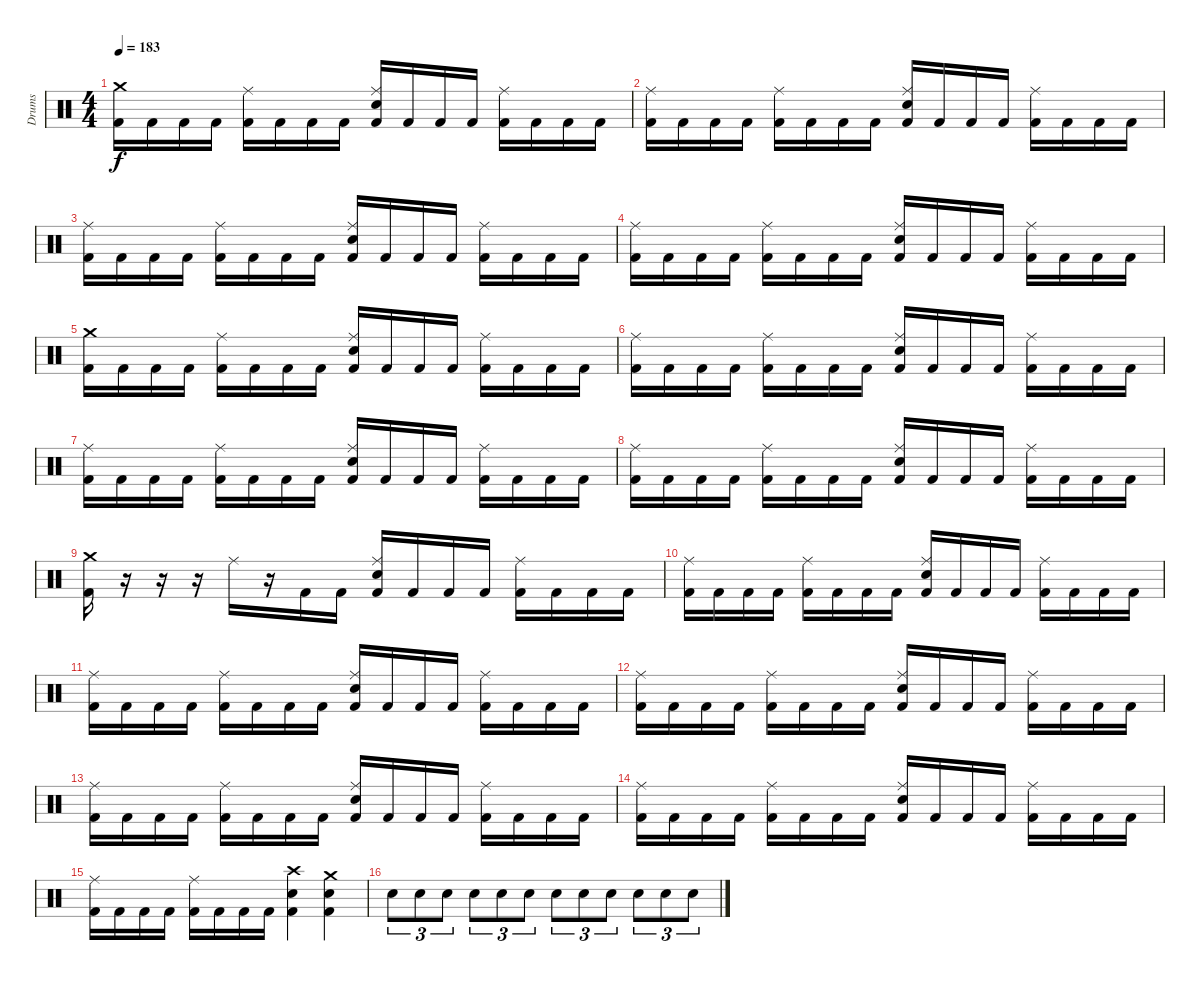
\track ("Drums" "Drums") {instrument percussion}
\staff {score}
\articulation defaults
\ts (4 4)
\section ("" "")
\tempo 183
\clef neutral
\ks c
("Crash medium (hit)" "Kick (hit) 2").16{dy f} "Kick (hit) 2".16 "Kick (hit) 2".16 "Kick (hit) 2".16 ("Ride (middle)" "Kick (hit) 2").16 "Kick (hit) 2".16 "Kick (hit) 2".16 "Kick (hit) 2".16 ("Ride (middle)" "Electric Snare (hit)" "Kick (hit) 2").16 "Kick (hit) 2".16 "Kick (hit) 2".16 "Kick (hit) 2".16 ("Ride (middle)" "Kick (hit) 2").16 "Kick (hit) 2".16 "Kick (hit) 2".16 "Kick (hit) 2".16 |
("Ride (middle)" "Kick (hit) 2").16 "Kick (hit) 2".16 "Kick (hit) 2".16 "Kick (hit) 2".16 ("Ride (middle)" "Kick (hit) 2").16 "Kick (hit) 2".16 "Kick (hit) 2".16 "Kick (hit) 2".16 ("Ride (middle)" "Electric Snare (hit)" "Kick (hit) 2").16 "Kick (hit) 2".16 "Kick (hit) 2".16 "Kick (hit) 2".16 ("Ride (middle)" "Kick (hit) 2").16 "Kick (hit) 2".16 "Kick (hit) 2".16 "Kick (hit) 2".16 |
("Ride (middle)" "Kick (hit) 2").16 "Kick (hit) 2".16 "Kick (hit) 2".16 "Kick (hit) 2".16 ("Ride (middle)" "Kick (hit) 2").16 "Kick (hit) 2".16 "Kick (hit) 2".16 "Kick (hit) 2".16 ("Ride (middle)" "Electric Snare (hit)" "Kick (hit) 2").16 "Kick (hit) 2".16 "Kick (hit) 2".16 "Kick (hit) 2".16 ("Ride (middle)" "Kick (hit) 2").16 "Kick (hit) 2".16 "Kick (hit) 2".16 "Kick (hit) 2".16 |
("Ride (middle)" "Kick (hit) 2").16 "Kick (hit) 2".16 "Kick (hit) 2".16 "Kick (hit) 2".16 ("Ride (middle)" "Kick (hit) 2").16 "Kick (hit) 2".16 "Kick (hit) 2".16 "Kick (hit) 2".16 ("Ride (middle)" "Electric Snare (hit)" "Kick (hit) 2").16 "Kick (hit) 2".16 "Kick (hit) 2".16 "Kick (hit) 2".16 ("Ride (middle)" "Kick (hit) 2").16 "Kick (hit) 2".16 "Kick (hit) 2".16 "Kick (hit) 2".16 |
("Crash medium (hit)" "Kick (hit) 2").16 "Kick (hit) 2".16 "Kick (hit) 2".16 "Kick (hit) 2".16 ("Ride (middle)" "Kick (hit) 2").16 "Kick (hit) 2".16 "Kick (hit) 2".16 "Kick (hit) 2".16 ("Ride (middle)" "Electric Snare (hit)" "Kick (hit) 2").16 "Kick (hit) 2".16 "Kick (hit) 2".16 "Kick (hit) 2".16 ("Ride (middle)" "Kick (hit) 2").16 "Kick (hit) 2".16 "Kick (hit) 2".16 "Kick (hit) 2".16 |
("Ride (middle)" "Kick (hit) 2").16 "Kick (hit) 2".16 "Kick (hit) 2".16 "Kick (hit) 2".16 ("Ride (middle)" "Kick (hit) 2").16 "Kick (hit) 2".16 "Kick (hit) 2".16 "Kick (hit) 2".16 ("Ride (middle)" "Electric Snare (hit)" "Kick (hit) 2").16 "Kick (hit) 2".16 "Kick (hit) 2".16 "Kick (hit) 2".16 ("Ride (middle)" "Kick (hit) 2").16 "Kick (hit) 2".16 "Kick (hit) 2".16 "Kick (hit) 2".16 |
("Ride (middle)" "Kick (hit) 2").16 "Kick (hit) 2".16 "Kick (hit) 2".16 "Kick (hit) 2".16 ("Ride (middle)" "Kick (hit) 2").16 "Kick (hit) 2".16 "Kick (hit) 2".16 "Kick (hit) 2".16 ("Ride (middle)" "Electric Snare (hit)" "Kick (hit) 2").16 "Kick (hit) 2".16 "Kick (hit) 2".16 "Kick (hit) 2".16 ("Ride (middle)" "Kick (hit) 2").16 "Kick (hit) 2".16 "Kick (hit) 2".16 "Kick (hit) 2".16 |
("Ride (middle)" "Kick (hit) 2").16 "Kick (hit) 2".16 "Kick (hit) 2".16 "Kick (hit) 2".16 ("Ride (middle)" "Kick (hit) 2").16 "Kick (hit) 2".16 "Kick (hit) 2".16 "Kick (hit) 2".16 ("Ride (middle)" "Electric Snare (hit)" "Kick (hit) 2").16 "Kick (hit) 2".16 "Kick (hit) 2".16 "Kick (hit) 2".16 ("Ride (middle)" "Kick (hit) 2").16 "Kick (hit) 2".16 "Kick (hit) 2".16 "Kick (hit) 2".16 |
\section ("" "")
("Crash medium (hit)" "Kick (hit) 2").16 r.16 r.16 r.16 "Ride (middle)".16 r.16 "Kick (hit) 2".16 "Kick (hit) 2".16 ("Ride (middle)" "Electric Snare (hit)" "Kick (hit) 2").16 "Kick (hit) 2".16 "Kick (hit) 2".16 "Kick (hit) 2".16 ("Ride (middle)" "Kick (hit) 2").16 "Kick (hit) 2".16 "Kick (hit) 2".16 "Kick (hit) 2".16 |
("Ride (middle)" "Kick (hit) 2").16 "Kick (hit) 2".16 "Kick (hit) 2".16 "Kick (hit) 2".16 ("Ride (middle)" "Kick (hit) 2").16 "Kick (hit) 2".16 "Kick (hit) 2".16 "Kick (hit) 2".16 ("Ride (middle)" "Electric Snare (hit)" "Kick (hit) 2").16 "Kick (hit) 2".16 "Kick (hit) 2".16 "Kick (hit) 2".16 ("Ride (middle)" "Kick (hit) 2").16 "Kick (hit) 2".16 "Kick (hit) 2".16 "Kick (hit) 2".16 |
("Ride (middle)" "Kick (hit) 2").16 "Kick (hit) 2".16 "Kick (hit) 2".16 "Kick (hit) 2".16 ("Ride (middle)" "Kick (hit) 2").16 "Kick (hit) 2".16 "Kick (hit) 2".16 "Kick (hit) 2".16 ("Ride (middle)" "Electric Snare (hit)" "Kick (hit) 2").16 "Kick (hit) 2".16 "Kick (hit) 2".16 "Kick (hit) 2".16 ("Ride (middle)" "Kick (hit) 2").16 "Kick (hit) 2".16 "Kick (hit) 2".16 "Kick (hit) 2".16 |
("Ride (middle)" "Kick (hit) 2").16 "Kick (hit) 2".16 "Kick (hit) 2".16 "Kick (hit) 2".16 ("Ride (middle)" "Kick (hit) 2").16 "Kick (hit) 2".16 "Kick (hit) 2".16 "Kick (hit) 2".16 ("Ride (middle)" "Electric Snare (hit)" "Kick (hit) 2").16 "Kick (hit) 2".16 "Kick (hit) 2".16 "Kick (hit) 2".16 ("Ride (middle)" "Kick (hit) 2").16 "Kick (hit) 2".16 "Kick (hit) 2".16 "Kick (hit) 2".16 |
("Ride (middle)" "Kick (hit) 2").16 "Kick (hit) 2".16 "Kick (hit) 2".16 "Kick (hit) 2".16 ("Ride (middle)" "Kick (hit) 2").16 "Kick (hit) 2".16 "Kick (hit) 2".16 "Kick (hit) 2".16 ("Ride (middle)" "Electric Snare (hit)" "Kick (hit) 2").16 "Kick (hit) 2".16 "Kick (hit) 2".16 "Kick (hit) 2".16 ("Ride (middle)" "Kick (hit) 2").16 "Kick (hit) 2".16 "Kick (hit) 2".16 "Kick (hit) 2".16 |
("Ride (middle)" "Kick (hit) 2").16 "Kick (hit) 2".16 "Kick (hit) 2".16 "Kick (hit) 2".16 ("Ride (middle)" "Kick (hit) 2").16 "Kick (hit) 2".16 "Kick (hit) 2".16 "Kick (hit) 2".16 ("Ride (middle)" "Electric Snare (hit)" "Kick (hit) 2").16 "Kick (hit) 2".16 "Kick (hit) 2".16 "Kick (hit) 2".16 ("Ride (middle)" "Kick (hit) 2").16 "Kick (hit) 2".16 "Kick (hit) 2".16 "Kick (hit) 2".16 |
("Ride (middle)" "Kick (hit) 2").16 "Kick (hit) 2".16 "Kick (hit) 2".16 "Kick (hit) 2".16 ("Ride (middle)" "Kick (hit) 2").16 "Kick (hit) 2".16 "Kick (hit) 2".16 "Kick (hit) 2".16 ("Crash high (hit)" "Electric Snare (hit)" "Kick (hit) 2").4 ("Crash medium (hit)" "Electric Snare (hit)" "Kick (hit) 2").4 |
"Electric Snare (hit)".8{tu (3 2)} "Electric Snare (hit)".8{tu (3 2)} "Electric Snare (hit)".8{tu (3 2)} "Electric Snare (hit)".8{tu (3 2)} "Electric Snare (hit)".8{tu (3 2)} "Electric Snare (hit)".8{tu (3 2)} "Electric Snare (hit)".8{tu (3 2)} "Electric Snare (hit)".8{tu (3 2)} "Electric Snare (hit)".8{tu (3 2)} "Electric Snare (hit)".8{tu (3 2)} "Electric Snare (hit)".8{tu (3 2)} "Electric Snare (hit)".8{tu (3 2)}
